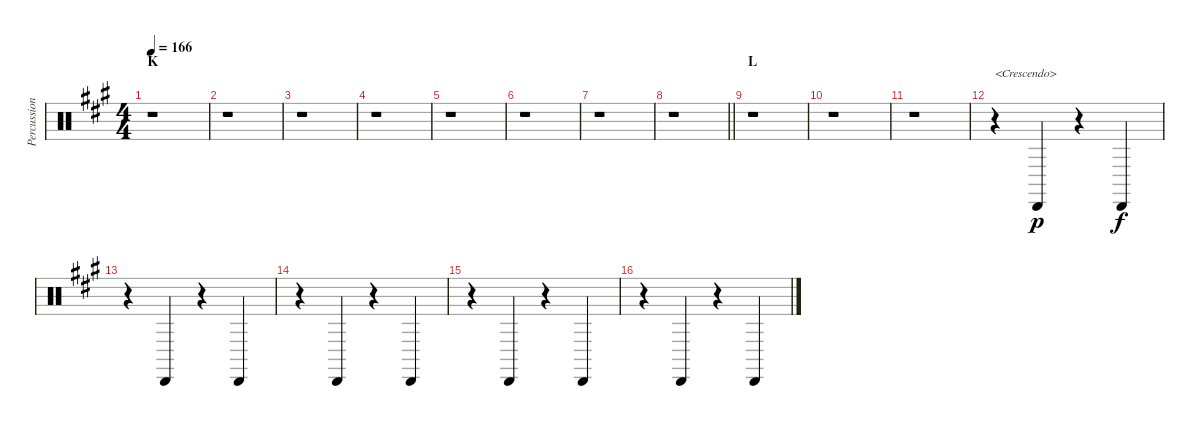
\track ("Percussion IV" "Percussion") {instrument percussion}
\staff {score}
\articulation defaults
\ts (4 4)
\section ("" "K")
\tempo 166
\clef neutral
\ks a
r.1{dy f} |
r.1 |
r.1 |
r.1 |
r.1 |
r.1 |
r.1 |
\barLineRight lightlight
r.1 |
\section ("" "L")
r.1 |
r.1 |
r.1 |
r.4{txt "<Crescendo>"} "Cabasa (hit)".4{dy p} r.4 "Cabasa (hit)".4{dy f} |
r.4 "Cabasa (hit)".4 r.4 "Cabasa (hit)".4 |
r.4 "Cabasa (hit)".4 r.4 "Cabasa (hit)".4 |
r.4 "Cabasa (hit)".4 r.4 "Cabasa (hit)".4 |
r.4 "Cabasa (hit)".4 r.4 "Cabasa (hit)".4
